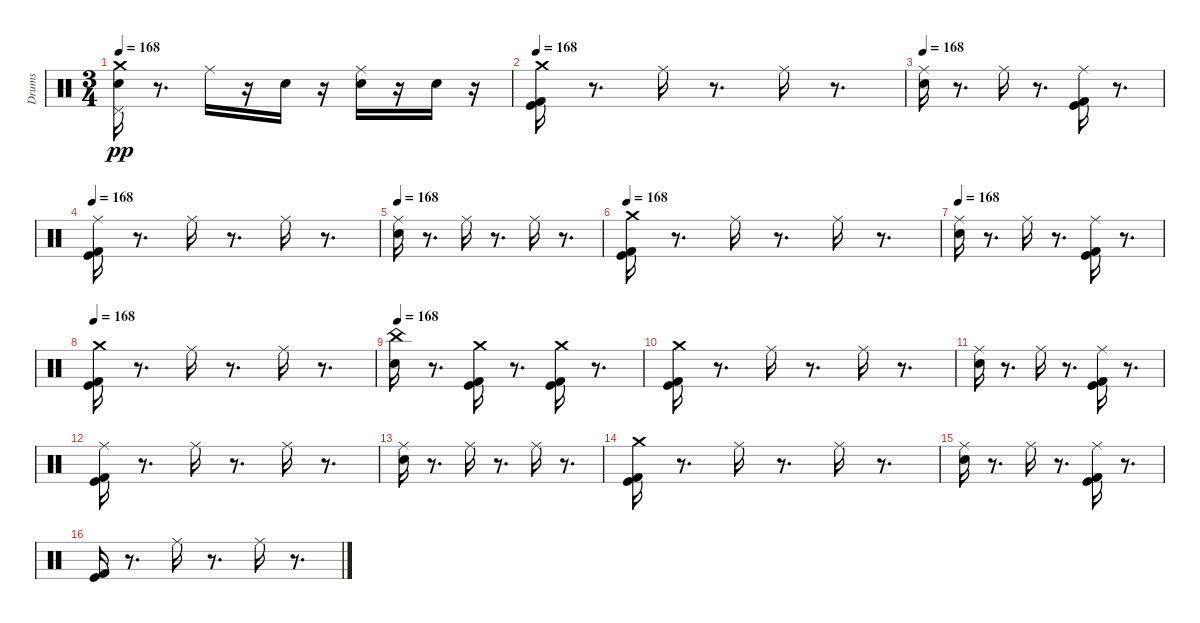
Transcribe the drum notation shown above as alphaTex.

\track ("Drums" "Drums") {instrument percussion}
\staff {score}
\articulation defaults
\ts (3 4)
\tempo 168
\clef neutral
\ks c
("Crash medium (hit)" "Pedal Hi-Hat (hit)" "Snare (hit) 2").16{dy pp} r.8{d} "Ride (middle)".16 r.16 "Snare (hit) 2".16 r.16 ("Ride (middle)" "Snare (hit) 2").16 r.16 "Snare (hit) 2".16 r.16 |
\tempo 168
("Crash medium (hit)" "Kick (hit) 2" "Kick (hit)").16 r.8{d} "Ride (middle)".16 r.8{d} "Ride (middle)".16 r.8{d} |
\tempo 168
("Ride (middle)" "Snare (hit) 2").16 r.8{d} "Ride (middle)".16 r.8{d} ("Ride (middle)" "Kick (hit) 2" "Kick (hit)").16 r.8{d} |
\tempo 168
("Ride (middle)" "Kick (hit) 2" "Kick (hit)").16 r.8{d} "Ride (middle)".16 r.8{d} "Ride (middle)".16 r.8{d} |
\tempo 168
("Ride (middle)" "Snare (hit) 2").16 r.8{d} "Ride (middle)".16 r.8{d} "Ride (middle)".16 r.8{d} |
\tempo 168
("Crash medium (hit)" "Kick (hit) 2" "Kick (hit)").16 r.8{d} "Ride (middle)".16 r.8{d} "Ride (middle)".16 r.8{d} |
\tempo 168
("Ride (middle)" "Snare (hit) 2").16 r.8{d} "Ride (middle)".16 r.8{d} ("Ride (middle)" "Kick (hit) 2" "Kick (hit)").16 r.8{d} |
\tempo 168
("Crash medium (hit)" "Kick (hit) 2" "Kick (hit)").16 r.8{d} "Ride (middle)".16 r.8{d} "Ride (middle)".16 r.8{d} |
\tempo 168
("China (hit)" "Snare (hit) 2").16 r.8{d} ("Crash medium (hit)" "Kick (hit)" "Kick (hit) 2").16 r.8{d} ("Crash medium (hit)" "Kick (hit)" "Kick (hit) 2").16 r.8{d} |
("Crash medium (hit)" "Kick (hit) 2" "Kick (hit)").16 r.8{d} "Ride (middle)".16 r.8{d} "Ride (middle)".16 r.8{d} |
("Ride (middle)" "Snare (hit) 2").16 r.8{d} "Ride (middle)".16 r.8{d} ("Ride (middle)" "Kick (hit) 2" "Kick (hit)").16 r.8{d} |
("Ride (middle)" "Kick (hit) 2" "Kick (hit)").16 r.8{d} "Ride (middle)".16 r.8{d} "Ride (middle)".16 r.8{d} |
("Ride (middle)" "Snare (hit) 2").16 r.8{d} "Ride (middle)".16 r.8{d} "Ride (middle)".16 r.8{d} |
("Crash medium (hit)" "Kick (hit) 2" "Kick (hit)").16 r.8{d} "Ride (middle)".16 r.8{d} "Ride (middle)".16 r.8{d} |
("Ride (middle)" "Snare (hit) 2").16 r.8{d} "Ride (middle)".16 r.8{d} ("Ride (middle)" "Kick (hit) 2" "Kick (hit)").16 r.8{d} |
("Kick (hit) 2" "Kick (hit)").16 r.8{d} "Ride (middle)".16 r.8{d} "Ride (middle)".16 r.8{d}
